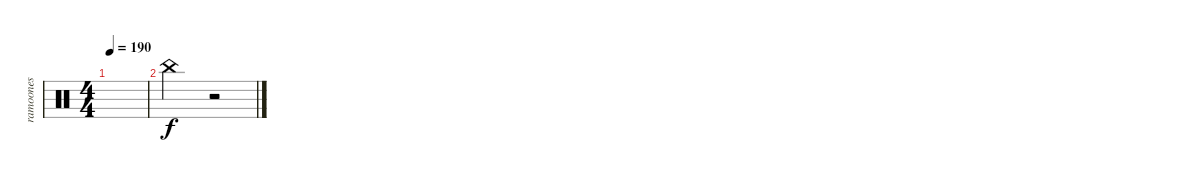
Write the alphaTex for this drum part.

\track ("ramoones" "ramoones") {instrument percussion}
\staff {score}
\articulation defaults
\ts (4 4)
\tempo 190
\clef neutral
\ks c
|
"China (hit)".2 r.2
